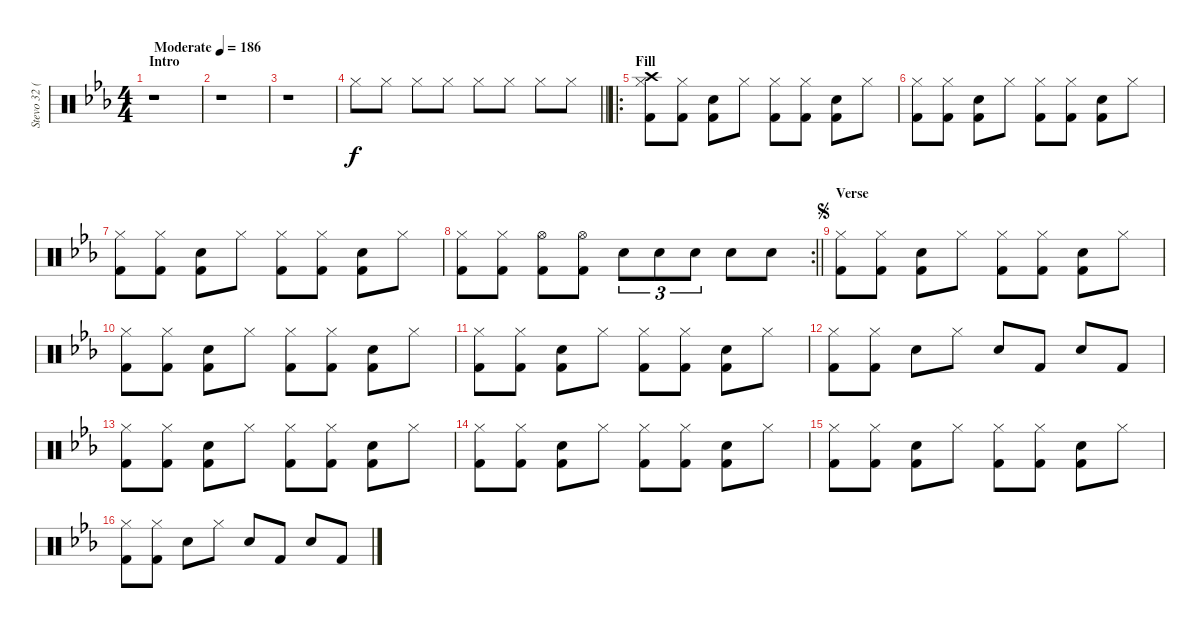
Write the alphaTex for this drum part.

\track ("Stevo 32 (Drums)" "Stevo 32 (") {instrument percussion}
\staff {score}
\articulation defaults
\ts (4 4)
\section ("" "Intro")
\tempo (186 "Moderate")
\clef neutral
\ks eb
r.1{dy f} |
r.1 |
r.1 |
\barLineRight lightlight "Hi-Hat (closed)".8 "Hi-Hat (closed)".8 "Hi-Hat (closed)".8 "Hi-Hat (closed)".8 "Hi-Hat (closed)".8 "Hi-Hat (closed)".8 "Hi-Hat (closed)".8 "Hi-Hat (closed)".8
|
\ro
\section ("" "Fill")
("Kick (hit) 2" "Crash high (hit)" "Hi-Hat (closed)").8 ("Kick (hit) 2" "Hi-Hat (closed)").8 ("Kick (hit) 2" "Snare (hit) 2").8 "Hi-Hat (closed)".8 ("Kick (hit) 2" "Hi-Hat (closed)").8 ("Kick (hit) 2" "Hi-Hat (closed)").8 ("Kick (hit) 2" "Snare (hit) 2").8 "Hi-Hat (closed)".8 |
("Kick (hit) 2" "Hi-Hat (closed)").8 ("Kick (hit) 2" "Hi-Hat (closed)").8 ("Kick (hit) 2" "Snare (hit) 2").8 "Hi-Hat (closed)".8 ("Kick (hit) 2" "Hi-Hat (closed)").8 ("Kick (hit) 2" "Hi-Hat (closed)").8 ("Kick (hit) 2" "Snare (hit) 2").8 "Hi-Hat (closed)".8 |
("Kick (hit) 2" "Hi-Hat (closed)").8 ("Kick (hit) 2" "Hi-Hat (closed)").8 ("Kick (hit) 2" "Snare (hit) 2").8 "Hi-Hat (closed)".8 ("Kick (hit) 2" "Hi-Hat (closed)").8 ("Kick (hit) 2" "Hi-Hat (closed)").8 ("Kick (hit) 2" "Snare (hit) 2").8 "Hi-Hat (closed)".8 |
\rc 2
\barLineRight lightlight
("Kick (hit) 2" "Hi-Hat (closed)").8 ("Kick (hit) 2" "Hi-Hat (closed)").8 ("Kick (hit) 2" "Hi-Hat (open)").8 ("Kick (hit) 2" "Hi-Hat (open)").8 "Snare (hit) 2".8{tu (3 2)} "Snare (hit) 2".8{tu (3 2)} "Snare (hit) 2".8{tu (3 2)} "Snare (hit) 2".8 "Snare (hit) 2".8 |
\section ("" "Verse")
\jump segno
("Kick (hit) 2" "Hi-Hat (closed)").8 ("Kick (hit) 2" "Hi-Hat (closed)").8 ("Kick (hit) 2" "Snare (hit) 2").8 "Hi-Hat (closed)".8 ("Kick (hit) 2" "Hi-Hat (closed)").8 ("Kick (hit) 2" "Hi-Hat (closed)").8 ("Kick (hit) 2" "Snare (hit) 2").8 "Hi-Hat (closed)".8 |
("Kick (hit) 2" "Hi-Hat (closed)").8 ("Kick (hit) 2" "Hi-Hat (closed)").8 ("Kick (hit) 2" "Snare (hit) 2").8 "Hi-Hat (closed)".8 ("Kick (hit) 2" "Hi-Hat (closed)").8 ("Kick (hit) 2" "Hi-Hat (closed)").8 ("Kick (hit) 2" "Snare (hit) 2").8 "Hi-Hat (closed)".8 |
("Kick (hit) 2" "Hi-Hat (closed)").8 ("Kick (hit) 2" "Hi-Hat (closed)").8 ("Kick (hit) 2" "Snare (hit) 2").8 "Hi-Hat (closed)".8 ("Kick (hit) 2" "Hi-Hat (closed)").8 ("Kick (hit) 2" "Hi-Hat (closed)").8 ("Kick (hit) 2" "Snare (hit) 2").8 "Hi-Hat (closed)".8 |
("Kick (hit) 2" "Hi-Hat (closed)").8 ("Kick (hit) 2" "Hi-Hat (closed)").8 "Snare (hit) 2".8 "Hi-Hat (closed)".8 "Snare (hit) 2".8 "Kick (hit) 2".8 "Snare (hit) 2".8 "Kick (hit) 2".8 |
("Kick (hit) 2" "Hi-Hat (closed)").8 ("Kick (hit) 2" "Hi-Hat (closed)").8 ("Kick (hit) 2" "Snare (hit) 2").8 "Hi-Hat (closed)".8 ("Kick (hit) 2" "Hi-Hat (closed)").8 ("Kick (hit) 2" "Hi-Hat (closed)").8 ("Kick (hit) 2" "Snare (hit) 2").8 "Hi-Hat (closed)".8 |
("Kick (hit) 2" "Hi-Hat (closed)").8 ("Kick (hit) 2" "Hi-Hat (closed)").8 ("Kick (hit) 2" "Snare (hit) 2").8 "Hi-Hat (closed)".8 ("Kick (hit) 2" "Hi-Hat (closed)").8 ("Kick (hit) 2" "Hi-Hat (closed)").8 ("Kick (hit) 2" "Snare (hit) 2").8 "Hi-Hat (closed)".8 |
("Kick (hit) 2" "Hi-Hat (closed)").8 ("Kick (hit) 2" "Hi-Hat (closed)").8 ("Kick (hit) 2" "Snare (hit) 2").8 "Hi-Hat (closed)".8 ("Kick (hit) 2" "Hi-Hat (closed)").8 ("Kick (hit) 2" "Hi-Hat (closed)").8 ("Kick (hit) 2" "Snare (hit) 2").8 "Hi-Hat (closed)".8 |
("Kick (hit) 2" "Hi-Hat (closed)").8 ("Kick (hit) 2" "Hi-Hat (closed)").8 "Snare (hit) 2".8 "Hi-Hat (closed)".8 "Snare (hit) 2".8 "Kick (hit) 2".8 "Snare (hit) 2".8 "Kick (hit) 2".8
